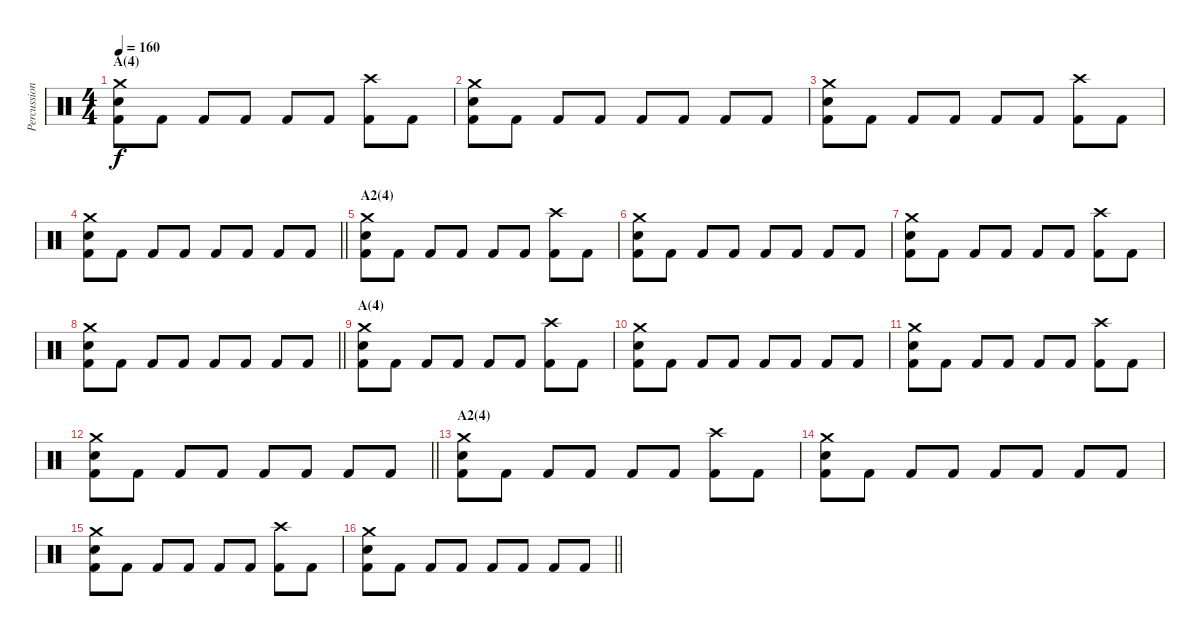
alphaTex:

\track ("Percussion" "Percussion") {instrument percussion}
\staff {score}
\articulation defaults
\ts (4 4)
\section ("" "A(4)")
\tempo 160
\clef neutral
\ks c
("Crash medium (hit)" "Electric Snare (hit)" "Kick (hit) 2").8{dy f} "Kick (hit) 2".8 "Kick (hit) 2".8 "Kick (hit) 2".8 "Kick (hit) 2".8 "Kick (hit) 2".8 ("Crash high (hit)" "Kick (hit) 2").8 "Kick (hit) 2".8 |
("Crash medium (hit)" "Electric Snare (hit)" "Kick (hit) 2").8 "Kick (hit) 2".8 "Kick (hit) 2".8 "Kick (hit) 2".8 "Kick (hit) 2".8 "Kick (hit) 2".8 "Kick (hit) 2".8 "Kick (hit) 2".8 |
("Crash medium (hit)" "Electric Snare (hit)" "Kick (hit) 2").8 "Kick (hit) 2".8 "Kick (hit) 2".8 "Kick (hit) 2".8 "Kick (hit) 2".8 "Kick (hit) 2".8 ("Crash high (hit)" "Kick (hit) 2").8 "Kick (hit) 2".8 |
\barLineRight lightlight
("Crash medium (hit)" "Electric Snare (hit)" "Kick (hit) 2").8 "Kick (hit) 2".8 "Kick (hit) 2".8 "Kick (hit) 2".8 "Kick (hit) 2".8 "Kick (hit) 2".8 "Kick (hit) 2".8 "Kick (hit) 2".8 |
\section ("" "A2(4)")
("Crash medium (hit)" "Electric Snare (hit)" "Kick (hit) 2").8 "Kick (hit) 2".8 "Kick (hit) 2".8 "Kick (hit) 2".8 "Kick (hit) 2".8 "Kick (hit) 2".8 ("Crash high (hit)" "Kick (hit) 2").8 "Kick (hit) 2".8 |
("Crash medium (hit)" "Electric Snare (hit)" "Kick (hit) 2").8 "Kick (hit) 2".8 "Kick (hit) 2".8 "Kick (hit) 2".8 "Kick (hit) 2".8 "Kick (hit) 2".8 "Kick (hit) 2".8 "Kick (hit) 2".8 |
("Crash medium (hit)" "Electric Snare (hit)" "Kick (hit) 2").8 "Kick (hit) 2".8 "Kick (hit) 2".8 "Kick (hit) 2".8 "Kick (hit) 2".8 "Kick (hit) 2".8 ("Crash high (hit)" "Kick (hit) 2").8 "Kick (hit) 2".8 |
\barLineRight lightlight
("Crash medium (hit)" "Electric Snare (hit)" "Kick (hit) 2").8 "Kick (hit) 2".8 "Kick (hit) 2".8 "Kick (hit) 2".8 "Kick (hit) 2".8 "Kick (hit) 2".8 "Kick (hit) 2".8 "Kick (hit) 2".8 |
\section ("" "A(4)")
("Crash medium (hit)" "Electric Snare (hit)" "Kick (hit) 2").8 "Kick (hit) 2".8 "Kick (hit) 2".8 "Kick (hit) 2".8 "Kick (hit) 2".8 "Kick (hit) 2".8 ("Crash high (hit)" "Kick (hit) 2").8 "Kick (hit) 2".8 |
("Crash medium (hit)" "Electric Snare (hit)" "Kick (hit) 2").8 "Kick (hit) 2".8 "Kick (hit) 2".8 "Kick (hit) 2".8 "Kick (hit) 2".8 "Kick (hit) 2".8 "Kick (hit) 2".8 "Kick (hit) 2".8 |
("Crash medium (hit)" "Electric Snare (hit)" "Kick (hit) 2").8 "Kick (hit) 2".8 "Kick (hit) 2".8 "Kick (hit) 2".8 "Kick (hit) 2".8 "Kick (hit) 2".8 ("Crash high (hit)" "Kick (hit) 2").8 "Kick (hit) 2".8 |
\barLineRight lightlight
("Crash medium (hit)" "Electric Snare (hit)" "Kick (hit) 2").8 "Kick (hit) 2".8 "Kick (hit) 2".8 "Kick (hit) 2".8 "Kick (hit) 2".8 "Kick (hit) 2".8 "Kick (hit) 2".8 "Kick (hit) 2".8 |
\section ("" "A2(4)")
("Crash medium (hit)" "Electric Snare (hit)" "Kick (hit) 2").8 "Kick (hit) 2".8 "Kick (hit) 2".8 "Kick (hit) 2".8 "Kick (hit) 2".8 "Kick (hit) 2".8 ("Crash high (hit)" "Kick (hit) 2").8 "Kick (hit) 2".8 |
("Crash medium (hit)" "Electric Snare (hit)" "Kick (hit) 2").8 "Kick (hit) 2".8 "Kick (hit) 2".8 "Kick (hit) 2".8 "Kick (hit) 2".8 "Kick (hit) 2".8 "Kick (hit) 2".8 "Kick (hit) 2".8 |
("Crash medium (hit)" "Electric Snare (hit)" "Kick (hit) 2").8 "Kick (hit) 2".8 "Kick (hit) 2".8 "Kick (hit) 2".8 "Kick (hit) 2".8 "Kick (hit) 2".8 ("Crash high (hit)" "Kick (hit) 2").8 "Kick (hit) 2".8 |
\barLineRight lightlight
("Crash medium (hit)" "Electric Snare (hit)" "Kick (hit) 2").8 "Kick (hit) 2".8 "Kick (hit) 2".8 "Kick (hit) 2".8 "Kick (hit) 2".8 "Kick (hit) 2".8 "Kick (hit) 2".8 "Kick (hit) 2".8
